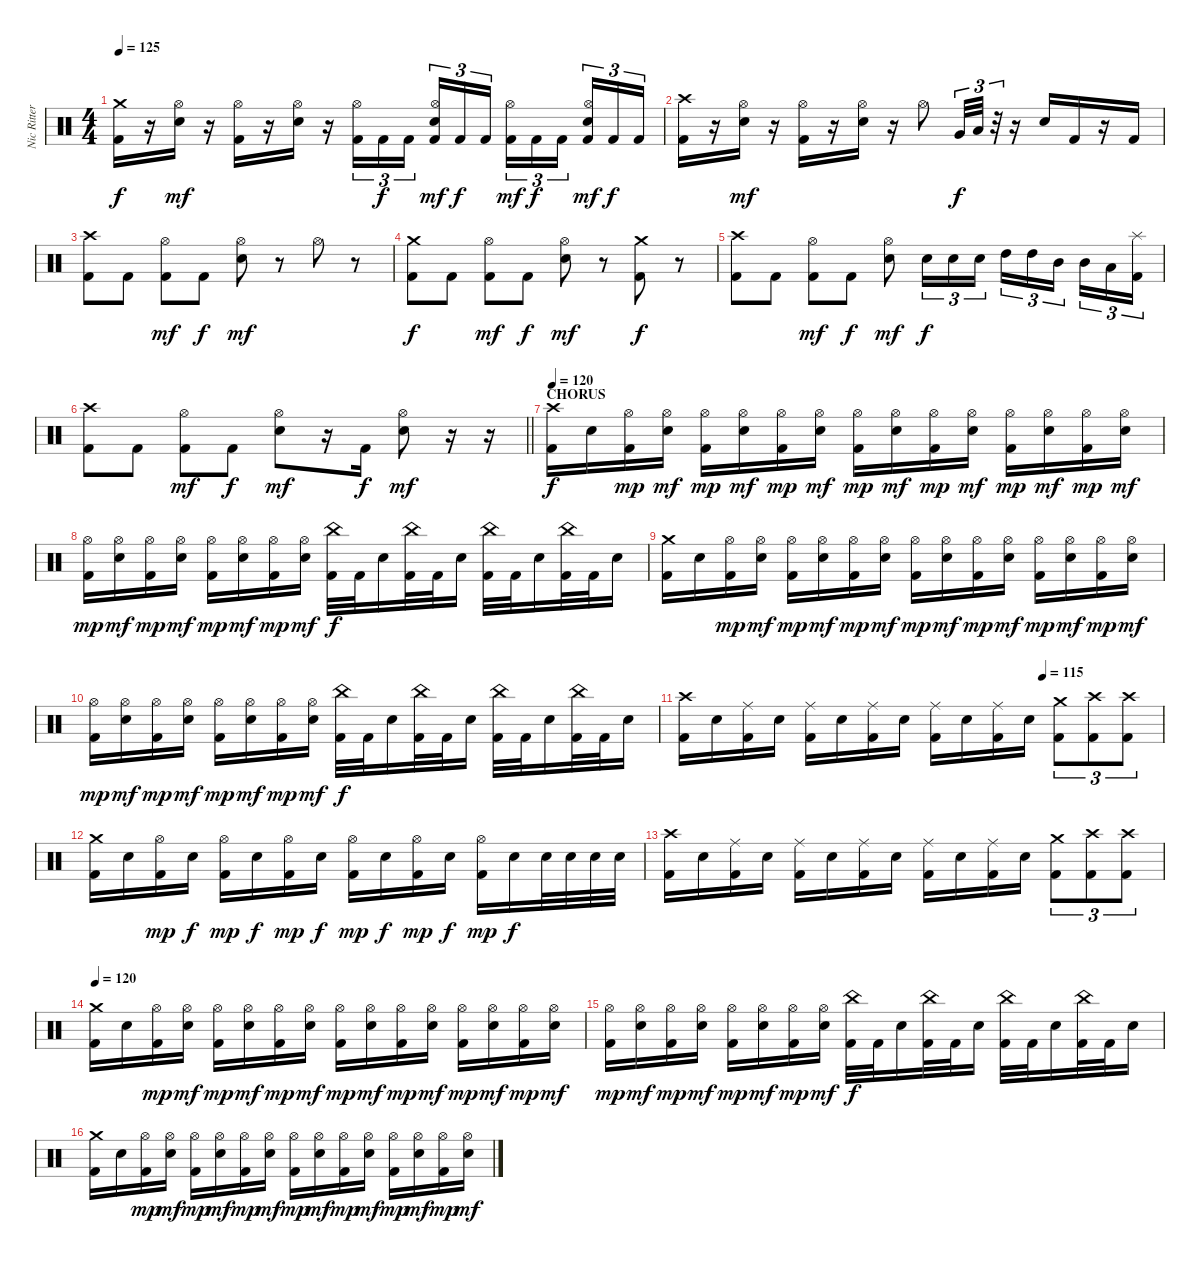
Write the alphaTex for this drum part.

\track ("Nic Ritter" "Nic Ritter") {instrument percussion}
\staff {score}
\articulation defaults
\ts (4 4)
\tempo 125
\clef neutral
\ks c
("Crash medium (hit)" "Kick (hit) 2").16{dy f} r.16 ("Hi-Hat (open)" "Electric Snare (hit)").16{dy mf} r.16 ("Hi-Hat (open)" "Kick (hit) 2").16 r.16 ("Hi-Hat (open)" "Electric Snare (hit)").16 r.16 ("Hi-Hat (open)" "Kick (hit) 2").16{tu (3 2)} "Kick (hit) 2".16{tu (3 2) dy f} "Kick (hit) 2".16{tu (3 2) beam splitsecondary} ("Hi-Hat (open)" "Electric Snare (hit)" "Kick (hit) 2").16{tu (3 2) dy mf} "Kick (hit) 2".16{tu (3 2) dy f} "Kick (hit) 2".16{tu (3 2)} ("Hi-Hat (open)" "Kick (hit) 2").16{tu (3 2) dy mf} "Kick (hit) 2".16{tu (3 2) dy f} "Kick (hit) 2".16{tu (3 2) beam splitsecondary} ("Hi-Hat (open)" "Electric Snare (hit)" "Kick (hit) 2").16{tu (3 2) dy mf} "Kick (hit) 2".16{tu (3 2) dy f} "Kick (hit) 2".16{tu (3 2)} |
("Crash high (hit)" "Kick (hit) 2").16 r.16 ("Hi-Hat (open)" "Electric Snare (hit)").16{dy mf} r.16 ("Hi-Hat (open)" "Kick (hit) 2").16 r.16 ("Hi-Hat (open)" "Electric Snare (hit)").16 r.16 "Hi-Hat (open)".8 "Very Low Tom (hit)".32{tu (3 2) dy f} "Low Tom (hit)".32{tu (3 2)} r.32{tu (3 2)} r.16 "Electric Snare (hit)".16 "Kick (hit) 2".16 r.16 "Kick (hit) 2".16 |
("Crash high (hit)" "Kick (hit) 2").8 "Kick (hit) 2".8 ("Hi-Hat (open)" "Kick (hit) 2").8{dy mf} "Kick (hit) 2".8{dy f} ("Hi-Hat (open)" "Electric Snare (hit)").8{dy mf} r.8 "Hi-Hat (open)".8 r.8 |
("Crash medium (hit)" "Kick (hit) 2").8{dy f} "Kick (hit) 2".8 ("Hi-Hat (open)" "Kick (hit) 2").8{dy mf} "Kick (hit) 2".8{dy f} ("Hi-Hat (open)" "Electric Snare (hit)").8{dy mf} r.8 ("Crash medium (hit)" "Kick (hit) 2").8{dy f} r.8 |
("Crash high (hit)" "Kick (hit) 2").8 "Kick (hit) 2".8 ("Hi-Hat (open)" "Kick (hit) 2").8{dy mf} "Kick (hit) 2".8{dy f} ("Hi-Hat (open)" "Electric Snare (hit)").8{dy mf} "Electric Snare (hit)".16{tu (3 2) dy f} "Electric Snare (hit)".16{tu (3 2)} "Electric Snare (hit)".16{tu (3 2)} "High Tom (hit)".16{tu (3 2)} "High Tom (hit)".16{tu (3 2)} "Mid Tom (hit)".16{tu (3 2) beam splitsecondary} "Mid Tom (hit)".16{tu (3 2)} "Low Tom (hit)".16{tu (3 2)} ("Splash (hit)" "Kick (hit) 2").16{tu (3 2)} |
\barLineRight lightlight
("Crash high (hit)" "Kick (hit) 2").8 "Kick (hit) 2".8 ("Hi-Hat (open)" "Kick (hit) 2").8{dy mf} "Kick (hit) 2".8{dy f} ("Hi-Hat (open)" "Electric Snare (hit)").8{dy mf} r.16 "Kick (hit) 2".16{dy f} ("Hi-Hat (open)" "Electric Snare (hit)").8{dy mf} r.16 r.16 |
\section ("" "CHORUS")
\tempo 120
("Crash high (hit)" "Kick (hit) 2").16{dy f} "Electric Snare (hit)".16 ("Hi-Hat (open)" "Kick (hit) 2").16{dy mp} ("Hi-Hat (open)" "Electric Snare (hit)").16{dy mf} ("Hi-Hat (open)" "Kick (hit) 2").16{dy mp} ("Hi-Hat (open)" "Electric Snare (hit)").16{dy mf} ("Hi-Hat (open)" "Kick (hit) 2").16{dy mp} ("Hi-Hat (open)" "Electric Snare (hit)").16{dy mf} ("Hi-Hat (open)" "Kick (hit) 2").16{dy mp} ("Hi-Hat (open)" "Electric Snare (hit)").16{dy mf} ("Hi-Hat (open)" "Kick (hit) 2").16{dy mp} ("Hi-Hat (open)" "Electric Snare (hit)").16{dy mf} ("Hi-Hat (open)" "Kick (hit) 2").16{dy mp} ("Hi-Hat (open)" "Electric Snare (hit)").16{dy mf} ("Hi-Hat (open)" "Kick (hit) 2").16{dy mp} ("Hi-Hat (open)" "Electric Snare (hit)").16{dy mf} |
("Hi-Hat (open)" "Kick (hit) 2").16{dy mp} ("Hi-Hat (open)" "Electric Snare (hit)").16{dy mf} ("Hi-Hat (open)" "Kick (hit) 2").16{dy mp} ("Hi-Hat (open)" "Electric Snare (hit)").16{dy mf} ("Hi-Hat (open)" "Kick (hit) 2").16{dy mp} ("Hi-Hat (open)" "Electric Snare (hit)").16{dy mf} ("Hi-Hat (open)" "Kick (hit) 2").16{dy mp} ("Hi-Hat (open)" "Electric Snare (hit)").16{dy mf} ("China (hit)" "Kick (hit) 2").32{dy f} "Kick (hit) 2".32 "Electric Snare (hit)".16 ("China (hit)" "Kick (hit) 2").32 "Kick (hit) 2".32 "Electric Snare (hit)".16 ("China (hit)" "Kick (hit) 2").32 "Kick (hit) 2".32 "Electric Snare (hit)".16 ("China (hit)" "Kick (hit) 2").32 "Kick (hit) 2".32 "Electric Snare (hit)".16 |
("Crash medium (hit)" "Kick (hit) 2").16 "Electric Snare (hit)".16 ("Hi-Hat (open)" "Kick (hit) 2").16{dy mp} ("Hi-Hat (open)" "Electric Snare (hit)").16{dy mf} ("Hi-Hat (open)" "Kick (hit) 2").16{dy mp} ("Hi-Hat (open)" "Electric Snare (hit)").16{dy mf} ("Hi-Hat (open)" "Kick (hit) 2").16{dy mp} ("Hi-Hat (open)" "Electric Snare (hit)").16{dy mf} ("Hi-Hat (open)" "Kick (hit) 2").16{dy mp} ("Hi-Hat (open)" "Electric Snare (hit)").16{dy mf} ("Hi-Hat (open)" "Kick (hit) 2").16{dy mp} ("Hi-Hat (open)" "Electric Snare (hit)").16{dy mf} ("Hi-Hat (open)" "Kick (hit) 2").16{dy mp} ("Hi-Hat (open)" "Electric Snare (hit)").16{dy mf} ("Hi-Hat (open)" "Kick (hit) 2").16{dy mp} ("Hi-Hat (open)" "Electric Snare (hit)").16{dy mf} |
("Hi-Hat (open)" "Kick (hit) 2").16{dy mp} ("Hi-Hat (open)" "Electric Snare (hit)").16{dy mf} ("Hi-Hat (open)" "Kick (hit) 2").16{dy mp} ("Hi-Hat (open)" "Electric Snare (hit)").16{dy mf} ("Hi-Hat (open)" "Kick (hit) 2").16{dy mp} ("Hi-Hat (open)" "Electric Snare (hit)").16{dy mf} ("Hi-Hat (open)" "Kick (hit) 2").16{dy mp} ("Hi-Hat (open)" "Electric Snare (hit)").16{dy mf} ("China (hit)" "Kick (hit) 2").32{dy f} "Kick (hit) 2".32 "Electric Snare (hit)".16 ("China (hit)" "Kick (hit) 2").32 "Kick (hit) 2".32 "Electric Snare (hit)".16 ("China (hit)" "Kick (hit) 2").32 "Kick (hit) 2".32 "Electric Snare (hit)".16 ("China (hit)" "Kick (hit) 2").32 "Kick (hit) 2".32 "Electric Snare (hit)".16 |
\tempo (115 0.75)
("Crash high (hit)" "Kick (hit) 2").16 "Electric Snare (hit)".16 ("Ride (middle)" "Kick (hit) 2").16 "Electric Snare (hit)".16 ("Ride (middle)" "Kick (hit) 2").16 "Electric Snare (hit)".16 ("Ride (middle)" "Kick (hit) 2").16 "Electric Snare (hit)".16 ("Ride (middle)" "Kick (hit) 2").16 "Electric Snare (hit)".16 ("Ride (middle)" "Kick (hit) 2").16 "Electric Snare (hit)".16 ("Crash medium (hit)" "Kick (hit) 2").8{tu (3 2)} ("Crash high (hit)" "Kick (hit) 2").8{tu (3 2)} ("Crash high (hit)" "Kick (hit) 2").8{tu (3 2)} |
("Crash medium (hit)" "Kick (hit) 2").16 "Electric Snare (hit)".16 ("Hi-Hat (open)" "Kick (hit) 2").16{dy mp} "Electric Snare (hit)".16{dy f} ("Hi-Hat (open)" "Kick (hit) 2").16{dy mp} "Electric Snare (hit)".16{dy f} ("Hi-Hat (open)" "Kick (hit) 2").16{dy mp} "Electric Snare (hit)".16{dy f} ("Hi-Hat (open)" "Kick (hit) 2").16{dy mp} "Electric Snare (hit)".16{dy f} ("Hi-Hat (open)" "Kick (hit) 2").16{dy mp} "Electric Snare (hit)".16{dy f} ("Hi-Hat (open)" "Kick (hit) 2").16{dy mp} "Electric Snare (hit)".16{dy f} "Electric Snare (hit)".32 "Electric Snare (hit)".32 "Electric Snare (hit)".32 "Electric Snare (hit)".32 |
("Crash high (hit)" "Kick (hit) 2").16 "Electric Snare (hit)".16 ("Ride (middle)" "Kick (hit) 2").16 "Electric Snare (hit)".16 ("Ride (middle)" "Kick (hit) 2").16 "Electric Snare (hit)".16 ("Ride (middle)" "Kick (hit) 2").16 "Electric Snare (hit)".16 ("Ride (middle)" "Kick (hit) 2").16 "Electric Snare (hit)".16 ("Ride (middle)" "Kick (hit) 2").16 "Electric Snare (hit)".16 ("Crash medium (hit)" "Kick (hit) 2").8{tu (3 2)} ("Crash high (hit)" "Kick (hit) 2").8{tu (3 2)} ("Crash high (hit)" "Kick (hit) 2").8{tu (3 2)} |
\tempo 120
("Crash medium (hit)" "Kick (hit) 2").16 "Electric Snare (hit)".16 ("Hi-Hat (open)" "Kick (hit) 2").16{dy mp} ("Hi-Hat (open)" "Electric Snare (hit)").16{dy mf} ("Hi-Hat (open)" "Kick (hit) 2").16{dy mp} ("Hi-Hat (open)" "Electric Snare (hit)").16{dy mf} ("Hi-Hat (open)" "Kick (hit) 2").16{dy mp} ("Hi-Hat (open)" "Electric Snare (hit)").16{dy mf} ("Hi-Hat (open)" "Kick (hit) 2").16{dy mp} ("Hi-Hat (open)" "Electric Snare (hit)").16{dy mf} ("Hi-Hat (open)" "Kick (hit) 2").16{dy mp} ("Hi-Hat (open)" "Electric Snare (hit)").16{dy mf} ("Hi-Hat (open)" "Kick (hit) 2").16{dy mp} ("Hi-Hat (open)" "Electric Snare (hit)").16{dy mf} ("Hi-Hat (open)" "Kick (hit) 2").16{dy mp} ("Hi-Hat (open)" "Electric Snare (hit)").16{dy mf} |
("Hi-Hat (open)" "Kick (hit) 2").16{dy mp} ("Hi-Hat (open)" "Electric Snare (hit)").16{dy mf} ("Hi-Hat (open)" "Kick (hit) 2").16{dy mp} ("Hi-Hat (open)" "Electric Snare (hit)").16{dy mf} ("Hi-Hat (open)" "Kick (hit) 2").16{dy mp} ("Hi-Hat (open)" "Electric Snare (hit)").16{dy mf} ("Hi-Hat (open)" "Kick (hit) 2").16{dy mp} ("Hi-Hat (open)" "Electric Snare (hit)").16{dy mf} ("China (hit)" "Kick (hit) 2").32{dy f} "Kick (hit) 2".32 "Electric Snare (hit)".16 ("China (hit)" "Kick (hit) 2").32 "Kick (hit) 2".32 "Electric Snare (hit)".16 ("China (hit)" "Kick (hit) 2").32 "Kick (hit) 2".32 "Electric Snare (hit)".16 ("China (hit)" "Kick (hit) 2").32 "Kick (hit) 2".32 "Electric Snare (hit)".16 |
("Crash medium (hit)" "Kick (hit) 2").16 "Electric Snare (hit)".16 ("Hi-Hat (open)" "Kick (hit) 2").16{dy mp} ("Hi-Hat (open)" "Electric Snare (hit)").16{dy mf} ("Hi-Hat (open)" "Kick (hit) 2").16{dy mp} ("Hi-Hat (open)" "Electric Snare (hit)").16{dy mf} ("Hi-Hat (open)" "Kick (hit) 2").16{dy mp} ("Hi-Hat (open)" "Electric Snare (hit)").16{dy mf} ("Hi-Hat (open)" "Kick (hit) 2").16{dy mp} ("Hi-Hat (open)" "Electric Snare (hit)").16{dy mf} ("Hi-Hat (open)" "Kick (hit) 2").16{dy mp} ("Hi-Hat (open)" "Electric Snare (hit)").16{dy mf} ("Hi-Hat (open)" "Kick (hit) 2").16{dy mp} ("Hi-Hat (open)" "Electric Snare (hit)").16{dy mf} ("Hi-Hat (open)" "Kick (hit) 2").16{dy mp} ("Hi-Hat (open)" "Electric Snare (hit)").16{dy mf}
